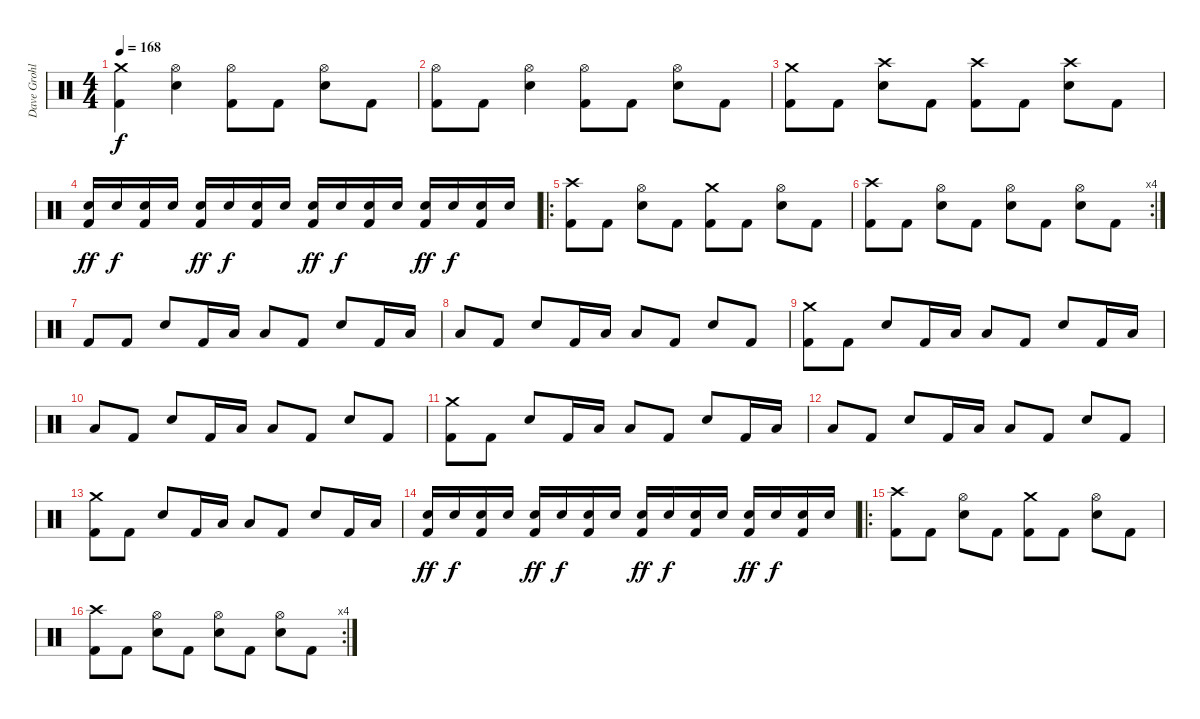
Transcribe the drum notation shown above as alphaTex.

\track ("Dave Grohl - Drums" "Dave Grohl") {instrument percussion}
\staff {score}
\articulation defaults
\ts (4 4)
\tempo 168
\clef neutral
\ks c
("Crash medium (hit)" "Kick (hit) 2").4{dy f} ("Hi-Hat (open)" "Electric Snare (hit)").4 ("Hi-Hat (open)" "Kick (hit) 2").8 "Kick (hit) 2".8 ("Hi-Hat (open)" "Electric Snare (hit)").8 "Kick (hit) 2".8 |
("Hi-Hat (open)" "Kick (hit) 2").8 "Kick (hit) 2".8 ("Hi-Hat (open)" "Electric Snare (hit)").4 ("Hi-Hat (open)" "Kick (hit) 2").8 "Kick (hit) 2".8 ("Hi-Hat (open)" "Electric Snare (hit)").8 "Kick (hit) 2".8 |
("Crash medium (hit)" "Kick (hit) 2").8 "Kick (hit) 2".8 ("Crash high (hit)" "Electric Snare (hit)").8 "Kick (hit) 2".8 ("Crash high (hit)" "Kick (hit) 2").8 "Kick (hit) 2".8 ("Crash high (hit)" "Electric Snare (hit)").8 "Kick (hit) 2".8 |
("Electric Snare (hit)" "Kick (hit) 2").16{dy ff volume 12} "Electric Snare (hit)".16{dy f} ("Electric Snare (hit)" "Kick (hit) 2").16 "Electric Snare (hit)".16 ("Electric Snare (hit)" "Kick (hit) 2").16{dy ff} "Electric Snare (hit)".16{dy f} ("Electric Snare (hit)" "Kick (hit) 2").16 "Electric Snare (hit)".16 ("Electric Snare (hit)" "Kick (hit) 2").16{dy ff} "Electric Snare (hit)".16{dy f} ("Electric Snare (hit)" "Kick (hit) 2").16 "Electric Snare (hit)".16 ("Electric Snare (hit)" "Kick (hit) 2").16{dy ff} "Electric Snare (hit)".16{dy f} ("Electric Snare (hit)" "Kick (hit) 2").16 "Electric Snare (hit)".16 |
\ro
("Crash high (hit)" "Kick (hit) 2").8{volume 13} "Kick (hit) 2".8 ("Hi-Hat (open)" "Electric Snare (hit)").8 "Kick (hit) 2".8 ("Crash medium (hit)" "Kick (hit) 2").8 "Kick (hit) 2".8 ("Hi-Hat (open)" "Electric Snare (hit)").8 "Kick (hit) 2".8 |
\rc 4
("Crash high (hit)" "Kick (hit) 2").8{volume 13} "Kick (hit) 2".8 ("Hi-Hat (open)" "Electric Snare (hit)").8 "Kick (hit) 2".8 ("Hi-Hat (open)" "Electric Snare (hit)").8 "Kick (hit) 2".8 ("Hi-Hat (open)" "Electric Snare (hit)").8 "Kick (hit) 2".8 |
"Kick (hit) 2".8 "Kick (hit) 2".8 "Electric Snare (hit)".8 "Kick (hit) 2".16 "Low Floor Tom (hit)".16 "Low Tom (hit)".8 "Kick (hit) 2".8 "Electric Snare (hit)".8 "Kick (hit) 2".16 "Low Floor Tom (hit)".16 |
"Low Tom (hit)".8 "Kick (hit) 2".8 "Electric Snare (hit)".8 "Kick (hit) 2".16 "Low Floor Tom (hit)".16 "Low Tom (hit)".8 "Kick (hit) 2".8 "Electric Snare (hit)".8 "Kick (hit) 2".8 |
("Crash medium (hit)" "Kick (hit) 2").8 "Kick (hit) 2".8 "Electric Snare (hit)".8 "Kick (hit) 2".16 "Low Floor Tom (hit)".16 "Low Tom (hit)".8 "Kick (hit) 2".8 "Electric Snare (hit)".8 "Kick (hit) 2".16 "Low Floor Tom (hit)".16 |
"Low Tom (hit)".8 "Kick (hit) 2".8 "Electric Snare (hit)".8 "Kick (hit) 2".16 "Low Floor Tom (hit)".16 "Low Tom (hit)".8 "Kick (hit) 2".8 "Electric Snare (hit)".8 "Kick (hit) 2".8 |
("Crash medium (hit)" "Kick (hit) 2").8 "Kick (hit) 2".8 "Electric Snare (hit)".8 "Kick (hit) 2".16 "Low Floor Tom (hit)".16 "Low Tom (hit)".8 "Kick (hit) 2".8 "Electric Snare (hit)".8 "Kick (hit) 2".16 "Low Floor Tom (hit)".16 |
"Low Tom (hit)".8 "Kick (hit) 2".8 "Electric Snare (hit)".8 "Kick (hit) 2".16 "Low Floor Tom (hit)".16 "Low Tom (hit)".8 "Kick (hit) 2".8 "Electric Snare (hit)".8 "Kick (hit) 2".8 |
("Crash medium (hit)" "Kick (hit) 2").8 "Kick (hit) 2".8 "Electric Snare (hit)".8 "Kick (hit) 2".16 "Low Floor Tom (hit)".16 "Low Tom (hit)".8 "Kick (hit) 2".8 "Electric Snare (hit)".8 "Kick (hit) 2".16 "Low Floor Tom (hit)".16 |
("Electric Snare (hit)" "Kick (hit) 2").16{dy ff volume 12} "Electric Snare (hit)".16{dy f} ("Electric Snare (hit)" "Kick (hit) 2").16 "Electric Snare (hit)".16 ("Electric Snare (hit)" "Kick (hit) 2").16{dy ff} "Electric Snare (hit)".16{dy f} ("Electric Snare (hit)" "Kick (hit) 2").16 "Electric Snare (hit)".16 ("Electric Snare (hit)" "Kick (hit) 2").16{dy ff} "Electric Snare (hit)".16{dy f} ("Electric Snare (hit)" "Kick (hit) 2").16 "Electric Snare (hit)".16 ("Electric Snare (hit)" "Kick (hit) 2").16{dy ff} "Electric Snare (hit)".16{dy f} ("Electric Snare (hit)" "Kick (hit) 2").16 "Electric Snare (hit)".16 |
\ro
("Crash high (hit)" "Kick (hit) 2").8{volume 13} "Kick (hit) 2".8 ("Hi-Hat (open)" "Electric Snare (hit)").8 "Kick (hit) 2".8 ("Crash medium (hit)" "Kick (hit) 2").8 "Kick (hit) 2".8 ("Hi-Hat (open)" "Electric Snare (hit)").8 "Kick (hit) 2".8 |
\rc 4
("Crash high (hit)" "Kick (hit) 2").8{volume 13} "Kick (hit) 2".8 ("Hi-Hat (open)" "Electric Snare (hit)").8 "Kick (hit) 2".8 ("Hi-Hat (open)" "Electric Snare (hit)").8 "Kick (hit) 2".8 ("Hi-Hat (open)" "Electric Snare (hit)").8 "Kick (hit) 2".8
